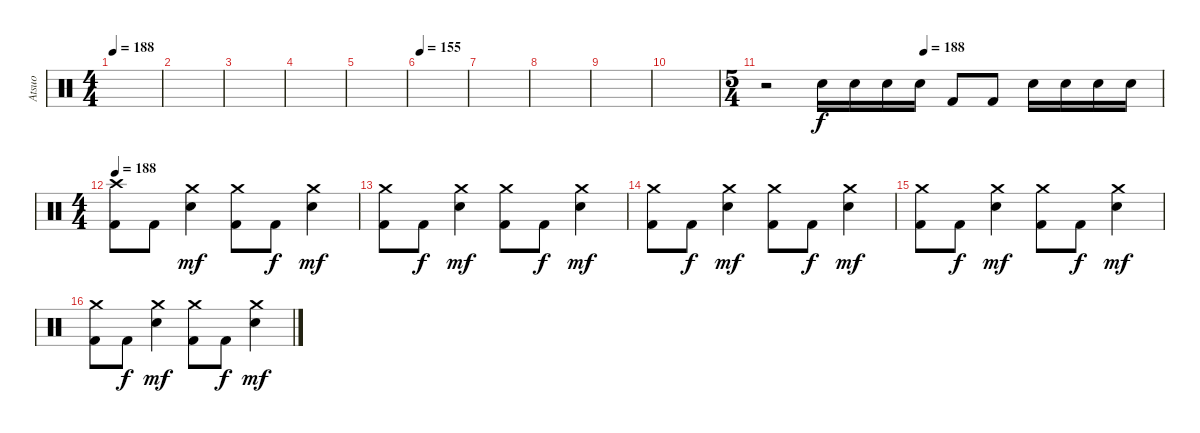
\track ("Atsuo" "Atsuo") {instrument percussion}
\staff {score}
\articulation defaults
\ts (4 4)
\tempo 188
\clef neutral
\ks c
|
|
|
|
|
\tempo 155
|
|
|
|
|
\ts (5 4)
\tempo (188 0.4)
r.2 "Electric Snare (hit)".16 "Electric Snare (hit)".16 "Electric Snare (hit)".16 "Electric Snare (hit)".16 "Kick (hit) 2".8 "Kick (hit) 2".8 "Electric Snare (hit)".16 "Electric Snare (hit)".16 "Electric Snare (hit)".16 "Electric Snare (hit)".16 |
\ts (4 4)
\tempo 188
("Crash high (hit)" "Kick (hit) 2").8 "Kick (hit) 2".8 ("Crash medium (hit)" "Electric Snare (hit)").4{dy mf} ("Crash medium (hit)" "Kick (hit) 2").8 "Kick (hit) 2".8{dy f} ("Crash medium (hit)" "Electric Snare (hit)").4{dy mf} |
("Crash medium (hit)" "Kick (hit) 2").8 "Kick (hit) 2".8{dy f} ("Crash medium (hit)" "Electric Snare (hit)").4{dy mf} ("Crash medium (hit)" "Kick (hit) 2").8 "Kick (hit) 2".8{dy f} ("Crash medium (hit)" "Electric Snare (hit)").4{dy mf} |
("Crash medium (hit)" "Kick (hit) 2").8 "Kick (hit) 2".8{dy f} ("Crash medium (hit)" "Electric Snare (hit)").4{dy mf} ("Crash medium (hit)" "Kick (hit) 2").8 "Kick (hit) 2".8{dy f} ("Crash medium (hit)" "Electric Snare (hit)").4{dy mf} |
("Crash medium (hit)" "Kick (hit) 2").8 "Kick (hit) 2".8{dy f} ("Crash medium (hit)" "Electric Snare (hit)").4{dy mf} ("Crash medium (hit)" "Kick (hit) 2").8 "Kick (hit) 2".8{dy f} ("Crash medium (hit)" "Electric Snare (hit)").4{dy mf} |
("Crash medium (hit)" "Kick (hit) 2").8 "Kick (hit) 2".8{dy f} ("Crash medium (hit)" "Electric Snare (hit)").4{dy mf} ("Crash medium (hit)" "Kick (hit) 2").8 "Kick (hit) 2".8{dy f} ("Crash medium (hit)" "Electric Snare (hit)").4{dy mf}
